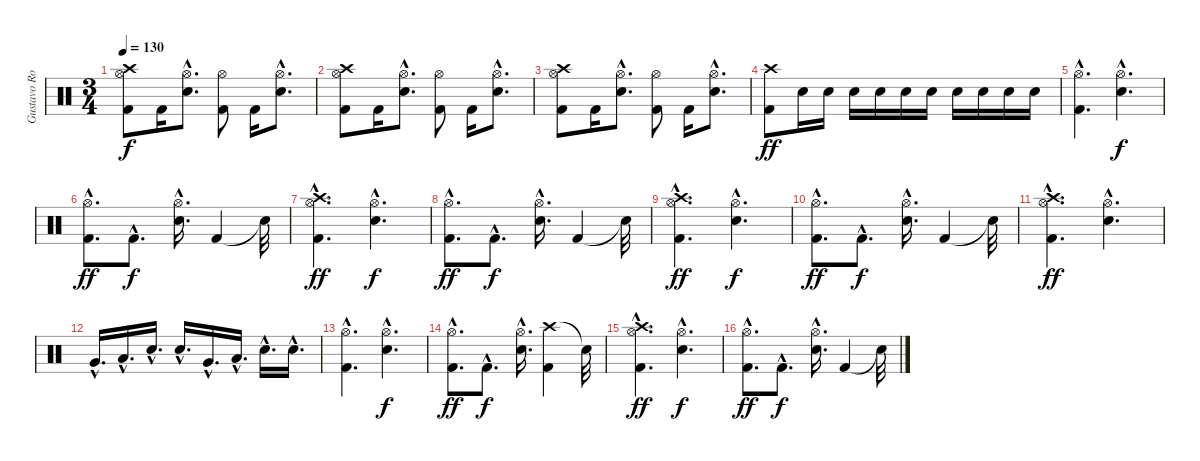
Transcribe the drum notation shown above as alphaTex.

\track ("Gustavo Rowek" "Gustavo Ro") {instrument percussion}
\staff {score}
\articulation defaults
\ts (3 4)
\tempo 130
\clef neutral
\ks c
("Hi-Hat (open)" "Crash high (hit)" "Kick (hit) 2").8{dy f} "Kick (hit) 2".16 ("Hi-Hat (open)"{hac} "Snare (hit) 2"{hac}).8{d} ("Hi-Hat (open)" "Kick (hit) 2").8 "Kick (hit) 2".16 ("Hi-Hat (open)"{hac} "Snare (hit) 2"{hac}).8{d} |
("Hi-Hat (open)" "Crash high (hit)" "Kick (hit) 2").8 "Kick (hit) 2".16 ("Hi-Hat (open)"{hac} "Snare (hit) 2"{hac}).8{d} ("Hi-Hat (open)" "Kick (hit) 2").8 "Kick (hit) 2".16 ("Hi-Hat (open)"{hac} "Snare (hit) 2"{hac}).8{d} |
("Hi-Hat (open)" "Crash high (hit)" "Kick (hit) 2").8 "Kick (hit) 2".16 ("Hi-Hat (open)"{hac} "Snare (hit) 2"{hac}).8{d} ("Hi-Hat (open)" "Kick (hit) 2").8 "Kick (hit) 2".16 ("Hi-Hat (open)"{hac} "Snare (hit) 2"{hac}).8{d} |
("Kick (hit) 2" "Crash high (hit)").8{dy ff} "Electric Snare (hit)".16 "Electric Snare (hit)".16 "Electric Snare (hit)".16 "Electric Snare (hit)".16 "Electric Snare (hit)".16 "Electric Snare (hit)".16 "Electric Snare (hit)".16 "Electric Snare (hit)".16 "Electric Snare (hit)".16 "Electric Snare (hit)".16 |
("Hi-Hat (open)"{hac} "Kick (hit) 2"{hac}).4{d} ("Hi-Hat (open)"{hac} "Snare (hit) 2"{hac}).4{d dy f} |
("Hi-Hat (open)"{hac} "Kick (hit) 2"{hac}).8{d dy ff} "Kick (hit) 2"{hac}.8{d dy f} ("Hi-Hat (open)"{hac} "Snare (hit) 2"{hac}).16{d} "Kick (hit) 2".4 "Snare (hit)"{t}.32 |
("Hi-Hat (open)"{hac} "Crash high (hit)"{hac} "Kick (hit) 2"{hac}).4{d dy ff} ("Hi-Hat (open)"{hac} "Snare (hit) 2"{hac}).4{d dy f} |
("Hi-Hat (open)"{hac} "Kick (hit) 2"{hac}).8{d dy ff} "Kick (hit) 2"{hac}.8{d dy f} ("Hi-Hat (open)"{hac} "Snare (hit) 2"{hac}).16{d} "Kick (hit) 2".4 "Snare (hit)"{t}.32 |
("Hi-Hat (open)"{hac} "Crash high (hit)"{hac} "Kick (hit) 2"{hac}).4{d dy ff} ("Hi-Hat (open)"{hac} "Snare (hit) 2"{hac}).4{d dy f} |
("Hi-Hat (open)"{hac} "Kick (hit) 2"{hac}).8{d dy ff} "Kick (hit) 2"{hac}.8{d dy f} ("Hi-Hat (open)"{hac} "Snare (hit) 2"{hac}).16{d} "Kick (hit) 2".4 "Snare (hit)"{t}.32 |
("Hi-Hat (open)"{hac} "Crash high (hit)"{hac} "Kick (hit) 2"{hac}).4{d dy ff} ("Hi-Hat (open)"{hac} "Snare (hit) 2"{hac}).4{d} |
"Very Low Tom (hit)"{hac}.16{d} "Low Floor Tom (hit)"{hac}.16{d} "Electric Snare (hit)"{hac}.16{d} "Snare (hit) 2"{hac}.16{d} "Very Low Tom (hit)"{hac}.16{d} "Low Floor Tom (hit)"{hac}.16{d} "Electric Snare (hit)"{hac}.16{d} "Snare (hit) 2"{hac}.16{d} |
("Hi-Hat (open)"{hac} "Kick (hit) 2"{hac}).4{d} ("Hi-Hat (open)"{hac} "Snare (hit) 2"{hac}).4{d dy f} |
("Hi-Hat (open)"{hac} "Kick (hit) 2"{hac}).8{d dy ff} "Kick (hit) 2"{hac}.8{d dy f} ("Hi-Hat (open)"{hac} "Snare (hit) 2"{hac}).16{d} ("Crash high (hit)" "Kick (hit) 2").4 "Snare (hit)"{t}.32 |
("Hi-Hat (open)"{hac} "Crash high (hit)"{hac} "Kick (hit) 2"{hac}).4{d dy ff} ("Hi-Hat (open)"{hac} "Snare (hit) 2"{hac}).4{d dy f} |
("Hi-Hat (open)"{hac} "Kick (hit) 2"{hac}).8{d dy ff} "Kick (hit) 2"{hac}.8{d dy f} ("Hi-Hat (open)"{hac} "Snare (hit) 2"{hac}).16{d} "Kick (hit) 2".4 "Snare (hit)"{t}.32
